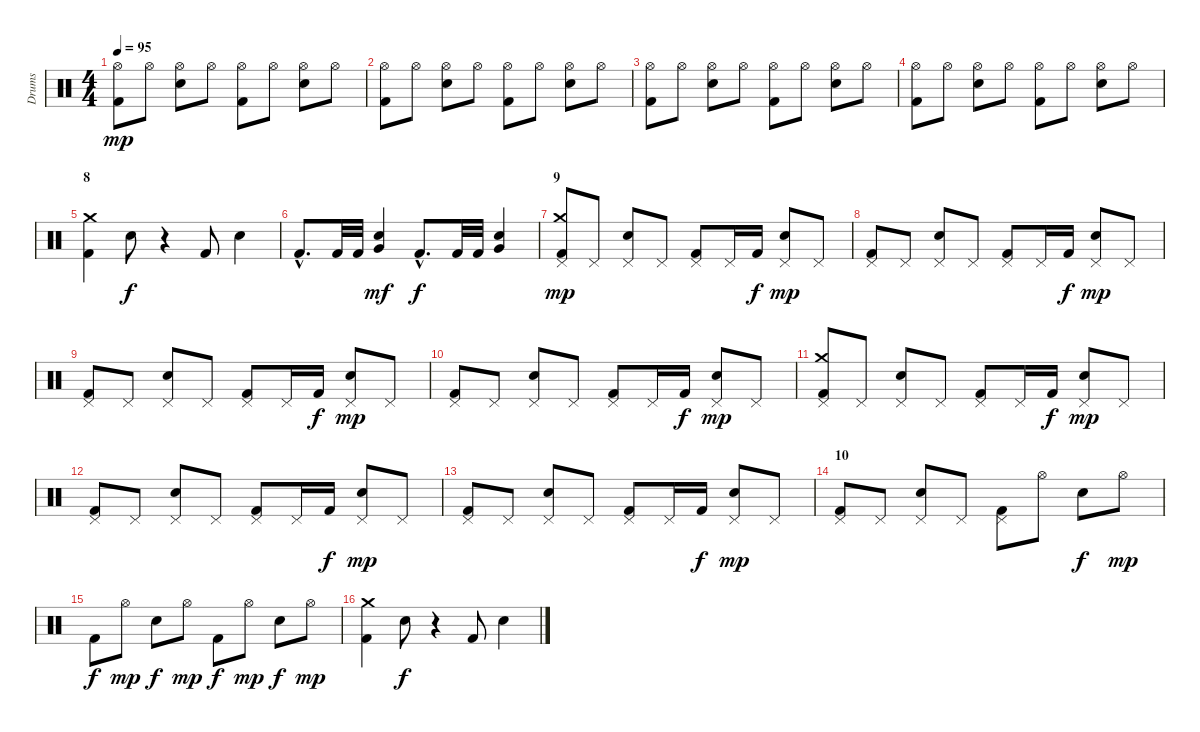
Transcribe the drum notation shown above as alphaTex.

\track ("Drums" "Drums") {instrument percussion}
\staff {score}
\articulation defaults
\ts (4 4)
\tempo 95
\clef neutral
\ks c
("Kick (hit) 2" "Hi-Hat (open)").8{dy mp} "Hi-Hat (open)".8 ("Electric Snare (hit)" "Hi-Hat (open)").8 "Hi-Hat (open)".8 ("Kick (hit) 2" "Hi-Hat (open)").8 "Hi-Hat (open)".8 ("Electric Snare (hit)" "Hi-Hat (open)").8 "Hi-Hat (open)".8 |
("Kick (hit) 2" "Hi-Hat (open)").8 "Hi-Hat (open)".8 ("Electric Snare (hit)" "Hi-Hat (open)").8 "Hi-Hat (open)".8 ("Kick (hit) 2" "Hi-Hat (open)").8 "Hi-Hat (open)".8 ("Electric Snare (hit)" "Hi-Hat (open)").8 "Hi-Hat (open)".8 |
("Kick (hit) 2" "Hi-Hat (open)").8 "Hi-Hat (open)".8 ("Electric Snare (hit)" "Hi-Hat (open)").8 "Hi-Hat (open)".8 ("Kick (hit) 2" "Hi-Hat (open)").8 "Hi-Hat (open)".8 ("Electric Snare (hit)" "Hi-Hat (open)").8 "Hi-Hat (open)".8 |
("Kick (hit) 2" "Hi-Hat (open)").8 "Hi-Hat (open)".8 ("Electric Snare (hit)" "Hi-Hat (open)").8 "Hi-Hat (open)".8 ("Kick (hit) 2" "Hi-Hat (open)").8 "Hi-Hat (open)".8 ("Electric Snare (hit)" "Hi-Hat (open)").8 "Hi-Hat (open)".8 |
\section ("" "8")
("Kick (hit) 2" "Crash medium (hit)").4 "Electric Snare (hit)".8{dy f} r.4 "Kick (hit) 2".8 "Electric Snare (hit)".4 |
"Kick (hit) 2"{hac}.8{d} "Kick (hit) 2".32 "Kick (hit) 2".32 ("Electric Snare (hit)" "Very Low Tom (hit)").4{dy mf} "Kick (hit) 2"{hac}.8{d dy f} "Kick (hit) 2".32 "Kick (hit) 2".32 ("Electric Snare (hit)" "Very Low Tom (hit)").4 |
\section ("" "9")
("Kick (hit) 2" "Pedal Hi-Hat (hit)" "Crash medium (hit)").8{dy mp} "Pedal Hi-Hat (hit)".8 ("Electric Snare (hit)" "Pedal Hi-Hat (hit)").8 "Pedal Hi-Hat (hit)".8 ("Kick (hit) 2" "Pedal Hi-Hat (hit)").8 "Pedal Hi-Hat (hit)".16 "Kick (hit) 2".16{dy f} ("Electric Snare (hit)" "Pedal Hi-Hat (hit)").8{dy mp} "Pedal Hi-Hat (hit)".8 |
("Kick (hit) 2" "Pedal Hi-Hat (hit)").8 "Pedal Hi-Hat (hit)".8 ("Electric Snare (hit)" "Pedal Hi-Hat (hit)").8 "Pedal Hi-Hat (hit)".8 ("Kick (hit) 2" "Pedal Hi-Hat (hit)").8 "Pedal Hi-Hat (hit)".16 "Kick (hit) 2".16{dy f} ("Electric Snare (hit)" "Pedal Hi-Hat (hit)").8{dy mp} "Pedal Hi-Hat (hit)".8 |
("Kick (hit) 2" "Pedal Hi-Hat (hit)").8 "Pedal Hi-Hat (hit)".8 ("Electric Snare (hit)" "Pedal Hi-Hat (hit)").8 "Pedal Hi-Hat (hit)".8 ("Kick (hit) 2" "Pedal Hi-Hat (hit)").8 "Pedal Hi-Hat (hit)".16 "Kick (hit) 2".16{dy f} ("Electric Snare (hit)" "Pedal Hi-Hat (hit)").8{dy mp} "Pedal Hi-Hat (hit)".8 |
("Kick (hit) 2" "Pedal Hi-Hat (hit)").8 "Pedal Hi-Hat (hit)".8 ("Electric Snare (hit)" "Pedal Hi-Hat (hit)").8 "Pedal Hi-Hat (hit)".8 ("Kick (hit) 2" "Pedal Hi-Hat (hit)").8 "Pedal Hi-Hat (hit)".16 "Kick (hit) 2".16{dy f} ("Electric Snare (hit)" "Pedal Hi-Hat (hit)").8{dy mp} "Pedal Hi-Hat (hit)".8 |
("Kick (hit) 2" "Pedal Hi-Hat (hit)" "Crash medium (hit)").8 "Pedal Hi-Hat (hit)".8 ("Electric Snare (hit)" "Pedal Hi-Hat (hit)").8 "Pedal Hi-Hat (hit)".8 ("Kick (hit) 2" "Pedal Hi-Hat (hit)").8 "Pedal Hi-Hat (hit)".16 "Kick (hit) 2".16{dy f} ("Electric Snare (hit)" "Pedal Hi-Hat (hit)").8{dy mp} "Pedal Hi-Hat (hit)".8 |
("Kick (hit) 2" "Pedal Hi-Hat (hit)").8 "Pedal Hi-Hat (hit)".8 ("Electric Snare (hit)" "Pedal Hi-Hat (hit)").8 "Pedal Hi-Hat (hit)".8 ("Kick (hit) 2" "Pedal Hi-Hat (hit)").8 "Pedal Hi-Hat (hit)".16 "Kick (hit) 2".16{dy f} ("Electric Snare (hit)" "Pedal Hi-Hat (hit)").8{dy mp} "Pedal Hi-Hat (hit)".8 |
("Kick (hit) 2" "Pedal Hi-Hat (hit)").8 "Pedal Hi-Hat (hit)".8 ("Electric Snare (hit)" "Pedal Hi-Hat (hit)").8 "Pedal Hi-Hat (hit)".8 ("Kick (hit) 2" "Pedal Hi-Hat (hit)").8 "Pedal Hi-Hat (hit)".16 "Kick (hit) 2".16{dy f} ("Electric Snare (hit)" "Pedal Hi-Hat (hit)").8{dy mp} "Pedal Hi-Hat (hit)".8 |
\section ("" "10")
("Kick (hit) 2" "Pedal Hi-Hat (hit)").8 "Pedal Hi-Hat (hit)".8 ("Electric Snare (hit)" "Pedal Hi-Hat (hit)").8 "Pedal Hi-Hat (hit)".8 ("Kick (hit) 2" "Pedal Hi-Hat (hit)").8 "Hi-Hat (open)".8 "Electric Snare (hit)".8{dy f} "Hi-Hat (open)".8{dy mp} |
"Kick (hit) 2".8{dy f} "Hi-Hat (open)".8{dy mp} "Electric Snare (hit)".8{dy f} "Hi-Hat (open)".8{dy mp} "Kick (hit) 2".8{dy f} "Hi-Hat (open)".8{dy mp} "Electric Snare (hit)".8{dy f} "Hi-Hat (open)".8{dy mp} |
("Kick (hit) 2" "Crash medium (hit)").4 "Electric Snare (hit)".8{dy f} r.4 "Kick (hit) 2".8 "Electric Snare (hit)".4
